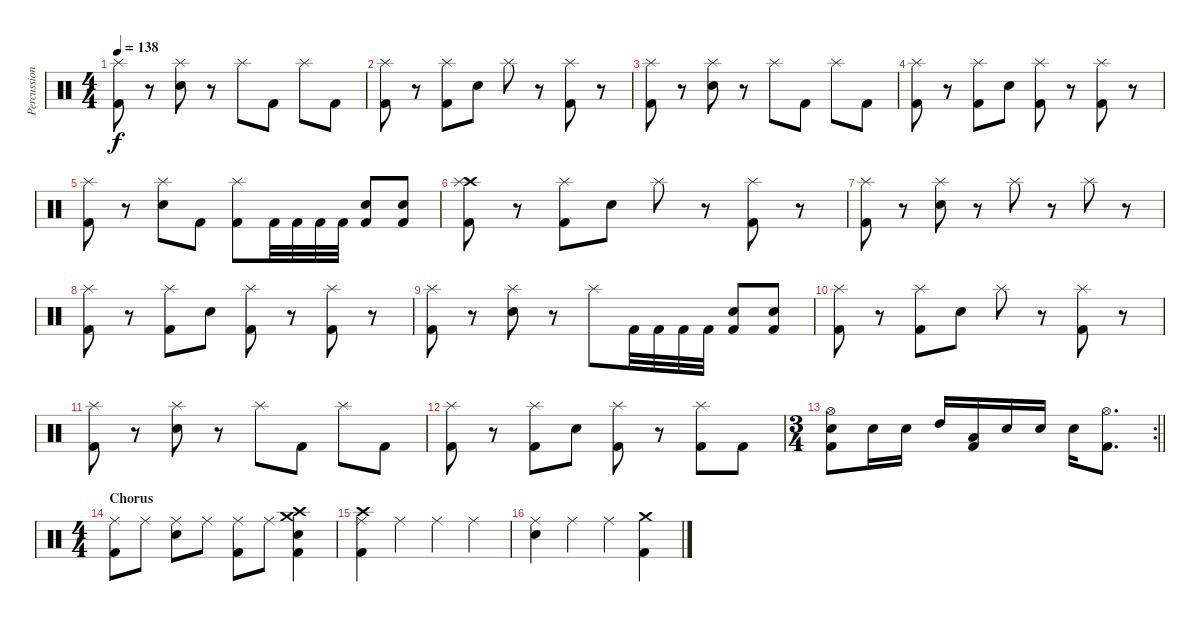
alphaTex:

\track ("Percussions" "Percussion") {instrument percussion}
\staff {score}
\articulation defaults
\ts (4 4)
\tempo 138
\clef neutral
\ks c
("Splash (hit)" "Kick (hit) 2").8{dy f} r.8 ("Splash (hit)" "Snare (hit) 2").8 r.8 "Splash (hit)".8 "Kick (hit) 2".8 "Splash (hit)".8 "Kick (hit) 2".8 |
("Splash (hit)" "Kick (hit) 2").8 r.8 ("Splash (hit)" "Kick (hit) 2").8 "Snare (hit) 2".8 "Splash (hit)".8 r.8 ("Splash (hit)" "Kick (hit) 2").8 r.8 |
("Splash (hit)" "Kick (hit) 2").8 r.8 ("Splash (hit)" "Snare (hit) 2").8 r.8 "Splash (hit)".8 "Kick (hit) 2".8 "Splash (hit)".8 "Kick (hit) 2".8 |
("Splash (hit)" "Kick (hit) 2").8 r.8 ("Splash (hit)" "Kick (hit) 2").8 "Snare (hit) 2".8 ("Splash (hit)" "Kick (hit) 2").8 r.8 ("Splash (hit)" "Kick (hit) 2").8 r.8 |
("Splash (hit)" "Kick (hit) 2").8 r.8 ("Splash (hit)" "Snare (hit) 2").8 "Kick (hit) 2".8 ("Splash (hit)" "Kick (hit) 2").8 "Kick (hit) 2".32 "Kick (hit) 2".32 "Kick (hit) 2".32 "Kick (hit) 2".32 ("Snare (hit) 2" "Kick (hit) 2").8 ("Snare (hit) 2" "Kick (hit) 2").8 |
("Crash high (hit)" "Splash (hit)" "Kick (hit) 2").8 r.8 ("Splash (hit)" "Kick (hit) 2").8 "Snare (hit) 2".8 "Splash (hit)".8 r.8 ("Splash (hit)" "Kick (hit) 2").8 r.8 |
("Splash (hit)" "Kick (hit) 2").8 r.8 ("Splash (hit)" "Snare (hit) 2").8 r.8 "Splash (hit)".8 r.8 "Splash (hit)".8 r.8 |
("Splash (hit)" "Kick (hit) 2").8 r.8 ("Splash (hit)" "Kick (hit) 2").8 "Snare (hit) 2".8 ("Splash (hit)" "Kick (hit) 2").8 r.8 ("Splash (hit)" "Kick (hit) 2").8 r.8 |
("Splash (hit)" "Kick (hit) 2").8 r.8 ("Splash (hit)" "Snare (hit) 2").8 r.8 "Splash (hit)".8 "Kick (hit) 2".32 "Kick (hit) 2".32 "Kick (hit) 2".32 "Kick (hit) 2".32 ("Snare (hit) 2" "Kick (hit) 2").8 ("Snare (hit) 2" "Kick (hit) 2").8 |
("Splash (hit)" "Kick (hit) 2").8 r.8 ("Splash (hit)" "Kick (hit) 2").8 "Snare (hit) 2".8 "Splash (hit)".8 r.8 ("Splash (hit)" "Kick (hit) 2").8 r.8 |
("Splash (hit)" "Kick (hit) 2").8 r.8 ("Splash (hit)" "Snare (hit) 2").8 r.8 "Splash (hit)".8 "Kick (hit) 2".8 "Splash (hit)".8 "Kick (hit) 2".8 |
("Splash (hit)" "Kick (hit) 2").8 r.8 ("Splash (hit)" "Kick (hit) 2").8 "Snare (hit) 2".8 ("Splash (hit)" "Kick (hit) 2").8 r.8 ("Splash (hit)" "Kick (hit) 2").8 "Kick (hit) 2".8 |
\rc 2
\ts (3 4)
\barLineRight lightlight
("Hi-Hat (open)" "Snare (hit) 2" "Kick (hit) 2").8 "Snare (hit) 2".16 "Snare (hit) 2".16 "High Tom (hit)".16 ("Low Tom (hit)" "Kick (hit) 2").16 "Snare (hit) 2".16 "Snare (hit) 2".16 "Snare (hit) 2".16 ("Hi-Hat (open)" "Kick (hit) 2").8{d} |
\ts (4 4)
\section ("" "Chorus")
("Ride (middle)" "Kick (hit) 2").8 "Ride (middle)".8 ("Ride (middle)" "Snare (hit) 2").8 "Ride (middle)".8 ("Ride (middle)" "Kick (hit) 2").8 "Ride (middle)".8 ("Crash medium (hit)" "Crash high (hit)" "Snare (hit) 2" "Kick (hit) 2").4 |
("Crash high (hit)" "Ride (middle)" "Kick (hit) 2").4 "Ride (middle)".4 "Ride (middle)".4 "Ride (middle)".4 |
("Ride (middle)" "Snare (hit) 2").4 "Ride (middle)".4 "Ride (middle)".4 ("Crash medium (hit)" "Kick (hit) 2").4
